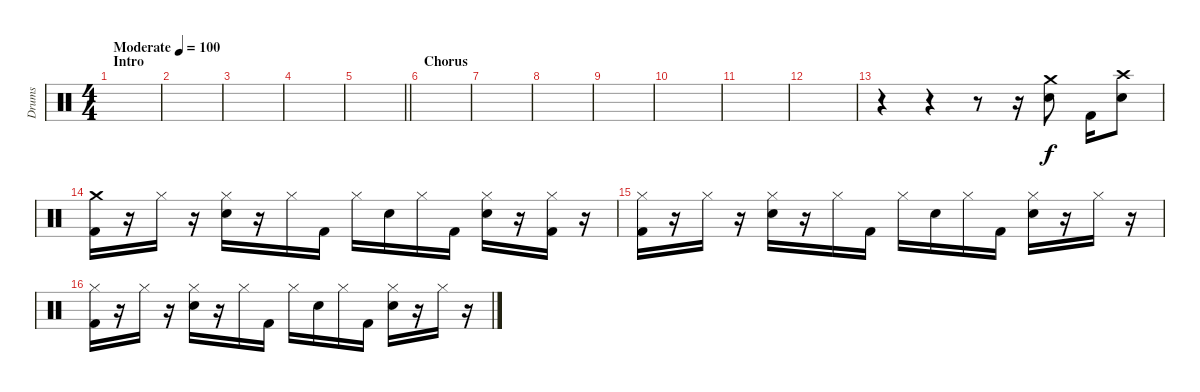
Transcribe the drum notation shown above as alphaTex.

\track ("Drums" "Drums") {instrument percussion}
\staff {score}
\articulation defaults
\ts (4 4)
\section ("" "Intro")
\tempo (100 "Moderate")
\clef neutral
\ks c
|
|
|
|
\barLineRight lightlight
|
\section ("" "Chorus")
|
|
|
|
|
|
|
r.4 r.4 r.8 r.16 ("Crash medium (hit)" "Snare (hit) 2").8 "Kick (hit) 2".16 ("Crash high (hit)" "Snare (hit) 2").8 |
("Crash medium (hit)" "Kick (hit) 2").16 r.16 "Hi-Hat (closed)".16 r.16 ("Hi-Hat (closed)" "Snare (hit) 2").16 r.16 "Hi-Hat (closed)".16 "Kick (hit) 2".16 "Hi-Hat (closed)".16 "Snare (hit) 2".16 "Hi-Hat (closed)".16 "Kick (hit) 2".16 ("Hi-Hat (closed)" "Snare (hit) 2").16 r.16 ("Hi-Hat (closed)" "Kick (hit) 2").16 r.16 |
("Hi-Hat (closed)" "Kick (hit) 2").16 r.16 "Hi-Hat (closed)".16 r.16 ("Hi-Hat (closed)" "Snare (hit) 2").16 r.16 "Hi-Hat (closed)".16 "Kick (hit) 2".16 "Hi-Hat (closed)".16 "Snare (hit) 2".16 "Hi-Hat (closed)".16 "Kick (hit) 2".16 ("Hi-Hat (closed)" "Snare (hit) 2").16 r.16 "Hi-Hat (closed)".16 r.16 |
("Hi-Hat (closed)" "Kick (hit) 2").16 r.16 "Hi-Hat (closed)".16 r.16 ("Hi-Hat (closed)" "Snare (hit) 2").16 r.16 "Hi-Hat (closed)".16 "Kick (hit) 2".16 "Hi-Hat (closed)".16 "Snare (hit) 2".16 "Hi-Hat (closed)".16 "Kick (hit) 2".16 ("Hi-Hat (closed)" "Snare (hit) 2").16 r.16 "Hi-Hat (closed)".16 r.16
